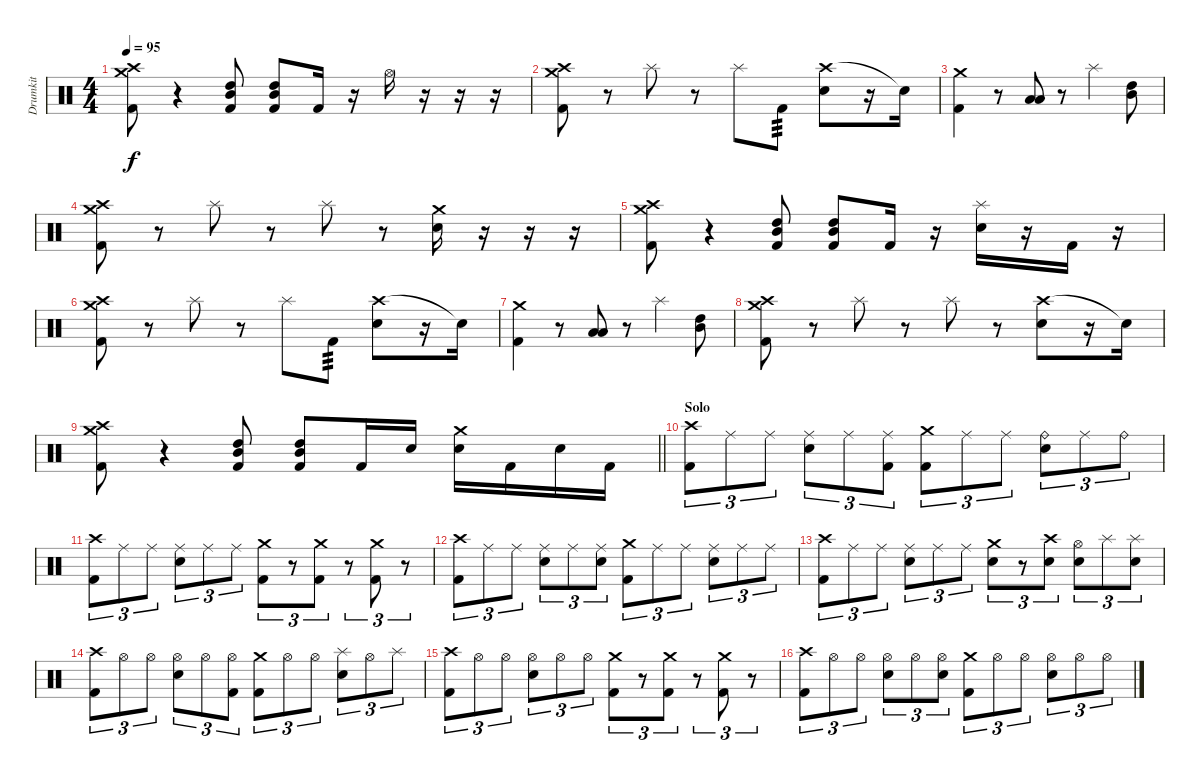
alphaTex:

\track ("Drumkit" "Drumkit") {instrument percussion}
\staff {score}
\articulation defaults
\ts (4 4)
\tempo 95
\clef neutral
\ks c
("Crash medium (hit)" "Crash high (hit)" "Kick (hit) 2").8{dy f} r.4 ("High Tom (hit)" "Mid Tom (hit)" "Kick (hit) 2").8 ("High Tom (hit)" "Mid Tom (hit)" "Kick (hit) 2").8 "Kick (hit) 2".16 r.16 "Hi-Hat (open)".16 r.16 r.16 r.16 |
("Crash high (hit)" "Crash medium (hit)" "Kick (hit) 2").8 r.8 "Splash (hit)".8 r.8 "Splash (hit)".8 "Kick (hit) 2".8{tp 3} ("Crash high (hit)" "Electric Snare (hit)").8 r.16 "Snare (hit)"{t}.16 |
("Crash medium (hit)" "Kick (hit) 2").4 r.8 ("Low Tom (hit)" "Low Floor Tom (hit)").8 r.8 "Splash (hit)".4 ("Mid Tom (hit)" "High Tom (hit)").8 |
("Crash high (hit)" "Crash medium (hit)" "Kick (hit) 2").8 r.8 "Splash (hit)".8 r.8 "Splash (hit)".8 r.8 ("Crash medium (hit)" "Electric Snare (hit)").16 r.16 r.16 r.16 |
("Crash medium (hit)" "Crash high (hit)" "Kick (hit) 2").8 r.4 ("High Tom (hit)" "Mid Tom (hit)" "Kick (hit) 2").8 ("High Tom (hit)" "Mid Tom (hit)" "Kick (hit) 2").8 "Kick (hit) 2".16 r.16 ("Splash (hit)" "Electric Snare (hit)").16 r.16 "Kick (hit) 2".16 r.16 |
("Crash high (hit)" "Crash medium (hit)" "Kick (hit) 2").8 r.8 "Splash (hit)".8 r.8 "Splash (hit)".8 "Kick (hit) 2".8{tp 3} ("Crash high (hit)" "Electric Snare (hit)").8 r.16 "Snare (hit)"{t}.16 |
("Crash medium (hit)" "Kick (hit) 2").4 r.8 ("Low Tom (hit)" "Low Floor Tom (hit)").8 r.8 "Splash (hit)".4 ("Mid Tom (hit)" "High Tom (hit)").8 |
("Crash high (hit)" "Crash medium (hit)" "Kick (hit) 2").8 r.8 "Splash (hit)".8 r.8 "Splash (hit)".8 r.8 ("Crash high (hit)" "Electric Snare (hit)").8 r.16 "Snare (hit)"{t}.16 |
\barLineRight lightlight
("Crash medium (hit)" "Crash high (hit)" "Kick (hit) 2").8 r.4 ("High Tom (hit)" "Mid Tom (hit)" "Kick (hit) 2").8 ("High Tom (hit)" "Mid Tom (hit)" "Kick (hit) 2").8 "Kick (hit) 2".16 "Electric Snare (hit)".16 ("Crash medium (hit)" "Electric Snare (hit)").16 "Kick (hit) 2".16 "Electric Snare (hit)".16 "Kick (hit) 2".16 |
\section ("" "Solo")
("Crash high (hit)" "Kick (hit) 2").8{tu (3 2)} "Ride (middle)".8{tu (3 2)} "Ride (middle)".8{tu (3 2)} ("Ride (middle)" "Electric Snare (hit)").8{tu (3 2)} "Ride (middle)".8{tu (3 2)} ("Ride (middle)" "Kick (hit) 2").8{tu (3 2)} ("Crash medium (hit)" "Kick (hit) 2").8{tu (3 2)} "Ride (middle)".8{tu (3 2)} "Ride (middle)".8{tu (3 2)} ("Ride (bell)" "Electric Snare (hit)").8{tu (3 2)} "Ride (middle)".8{tu (3 2)} "Ride (bell)".8{tu (3 2)} |
("Crash high (hit)" "Kick (hit) 2").8{tu (3 2)} "Ride (middle)".8{tu (3 2)} "Ride (middle)".8{tu (3 2)} ("Ride (middle)" "Electric Snare (hit)").8{tu (3 2)} "Ride (middle)".8{tu (3 2)} "Ride (middle)".8{tu (3 2)} ("Crash medium (hit)" "Kick (hit) 2").8{tu (3 2)} r.8{tu (3 2)} ("Crash medium (hit)" "Kick (hit) 2").8{tu (3 2)} r.8{tu (3 2)} ("Crash medium (hit)" "Kick (hit) 2").8{tu (3 2)} r.8{tu (3 2)} |
("Crash high (hit)" "Kick (hit) 2").8{tu (3 2)} "Ride (middle)".8{tu (3 2)} "Ride (middle)".8{tu (3 2)} ("Ride (middle)" "Electric Snare (hit)").8{tu (3 2)} "Ride (middle)".8{tu (3 2)} ("Ride (middle)" "Electric Snare (hit)").8{tu (3 2)} ("Crash medium (hit)" "Kick (hit) 2").8{tu (3 2)} "Ride (middle)".8{tu (3 2)} "Ride (middle)".8{tu (3 2)} ("Ride (middle)" "Electric Snare (hit)").8{tu (3 2)} "Ride (middle)".8{tu (3 2)} "Ride (middle)".8{tu (3 2)} |
("Crash high (hit)" "Kick (hit) 2").8{tu (3 2)} "Ride (middle)".8{tu (3 2)} "Ride (middle)".8{tu (3 2)} ("Ride (middle)" "Electric Snare (hit)").8{tu (3 2)} "Ride (middle)".8{tu (3 2)} "Ride (middle)".8{tu (3 2)} ("Crash medium (hit)" "Electric Snare (hit)").8{tu (3 2)} r.8{tu (3 2)} ("Crash high (hit)" "Electric Snare (hit)").8{tu (3 2)} ("Hi-Hat (open)" "Electric Snare (hit)").8{tu (3 2)} "Splash (hit)".8{tu (3 2)} ("Splash (hit)" "Electric Snare (hit)").8{tu (3 2)} |
("Crash high (hit)" "Kick (hit) 2").8{tu (3 2)} "Hi-Hat (open)".8{tu (3 2)} "Hi-Hat (open)".8{tu (3 2)} ("Hi-Hat (open)" "Electric Snare (hit)").8{tu (3 2)} "Hi-Hat (open)".8{tu (3 2)} ("Hi-Hat (open)" "Kick (hit) 2").8{tu (3 2)} ("Crash medium (hit)" "Kick (hit) 2").8{tu (3 2)} "Hi-Hat (open)".8{tu (3 2)} "Hi-Hat (open)".8{tu (3 2)} ("Splash (hit)" "Electric Snare (hit)").8{tu (3 2)} "Hi-Hat (open)".8{tu (3 2)} "Splash (hit)".8{tu (3 2)} |
("Crash high (hit)" "Kick (hit) 2").8{tu (3 2)} "Hi-Hat (open)".8{tu (3 2)} "Hi-Hat (open)".8{tu (3 2)} ("Hi-Hat (open)" "Electric Snare (hit)").8{tu (3 2)} "Hi-Hat (open)".8{tu (3 2)} "Hi-Hat (open)".8{tu (3 2)} ("Crash medium (hit)" "Kick (hit) 2").8{tu (3 2)} r.8{tu (3 2)} ("Crash medium (hit)" "Kick (hit) 2").8{tu (3 2)} r.8{tu (3 2)} ("Crash medium (hit)" "Kick (hit) 2").8{tu (3 2)} r.8{tu (3 2)} |
("Crash high (hit)" "Kick (hit) 2").8{tu (3 2)} "Hi-Hat (open)".8{tu (3 2)} "Hi-Hat (open)".8{tu (3 2)} ("Hi-Hat (open)" "Electric Snare (hit)").8{tu (3 2)} "Hi-Hat (open)".8{tu (3 2)} ("Hi-Hat (open)" "Electric Snare (hit)").8{tu (3 2)} ("Crash medium (hit)" "Kick (hit) 2").8{tu (3 2)} "Hi-Hat (open)".8{tu (3 2)} "Hi-Hat (open)".8{tu (3 2)} ("Hi-Hat (open)" "Electric Snare (hit)").8{tu (3 2)} "Hi-Hat (open)".8{tu (3 2)} "Hi-Hat (open)".8{tu (3 2)}
